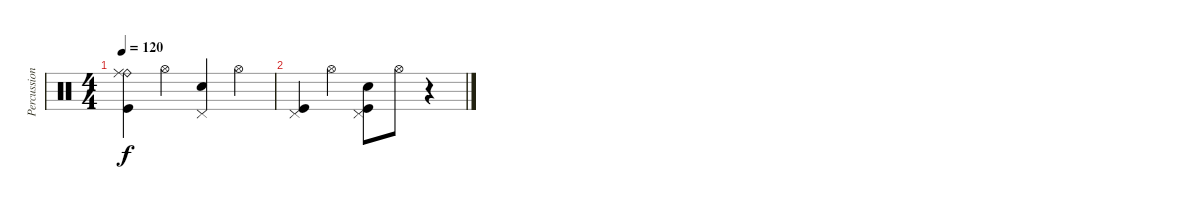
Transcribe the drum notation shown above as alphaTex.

\track ("Percussion" "Percussion") {instrument percussion}
\staff {score}
\articulation defaults
\ts (4 4)
\tempo 120
\clef neutral
\ks c
("Ride (bell)" "Ride (middle)" "Kick (hit)").4{dy f} "Hi-Hat (open)".4 ("Pedal Hi-Hat (hit)" "Snare (hit) 2").4 "Hi-Hat (open)".4 |
("Pedal Hi-Hat (hit)" "Kick (hit)").4 "Hi-Hat (open)".4 ("Pedal Hi-Hat (hit)" "Snare (hit) 2" "Kick (hit)").8 "Hi-Hat (open)".8 r.4
